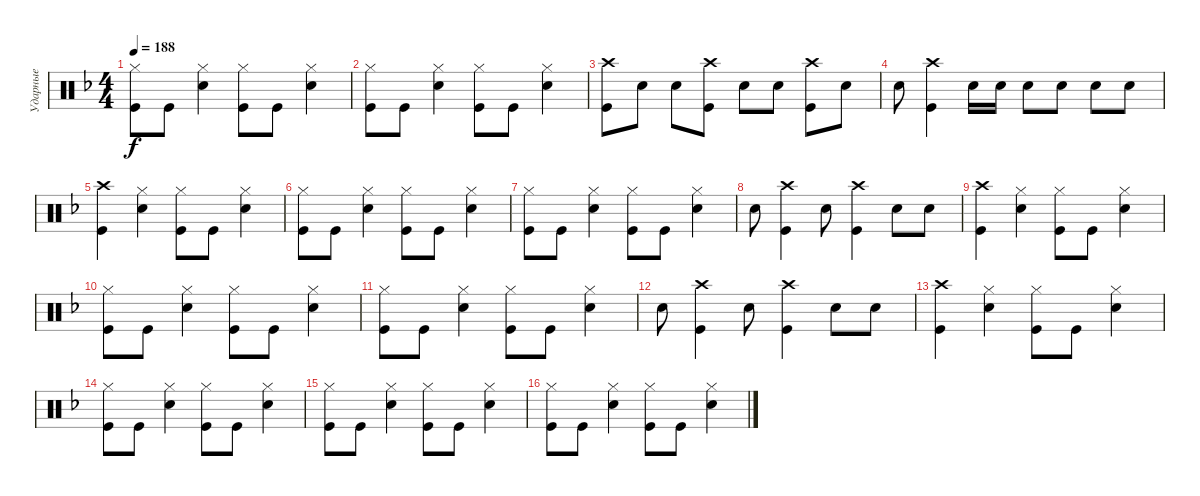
\track ("Ударные" "Ударные") {instrument percussion}
\staff {score}
\articulation defaults
\ts (4 4)
\tempo 188
\clef neutral
\ks dminor
("Kick (hit)" "Hi-Hat (closed)").8{dy f} "Kick (hit)".8 ("Snare (hit) 2" "Hi-Hat (closed)").4 ("Kick (hit)" "Hi-Hat (closed)").8 "Kick (hit)".8 ("Hi-Hat (closed)" "Snare (hit) 2").4 |
("Kick (hit)" "Hi-Hat (closed)").8 "Kick (hit)".8 ("Snare (hit) 2" "Hi-Hat (closed)").4 ("Kick (hit)" "Hi-Hat (closed)").8 "Kick (hit)".8 ("Hi-Hat (closed)" "Snare (hit) 2").4 |
("Kick (hit)" "Crash high (hit)").8 "Snare (hit) 2".8 "Snare (hit) 2".8 ("Kick (hit)" "Crash high (hit)").8 "Snare (hit) 2".8 "Snare (hit) 2".8 ("Kick (hit)" "Crash high (hit)").8 "Snare (hit) 2".8 |
"Snare (hit) 2".8 ("Kick (hit)" "Crash high (hit)").4 "Snare (hit) 2".16 "Snare (hit) 2".16 "Snare (hit) 2".8 "Snare (hit) 2".8 "Snare (hit) 2".8 "Snare (hit) 2".8 |
("Kick (hit)" "Crash high (hit)").4 ("Snare (hit) 2" "Hi-Hat (closed)").4 ("Kick (hit)" "Hi-Hat (closed)").8 "Kick (hit)".8 ("Hi-Hat (closed)" "Snare (hit) 2").4 |
("Kick (hit)" "Hi-Hat (closed)").8 "Kick (hit)".8 ("Snare (hit) 2" "Hi-Hat (closed)").4 ("Kick (hit)" "Hi-Hat (closed)").8 "Kick (hit)".8 ("Hi-Hat (closed)" "Snare (hit) 2").4 |
("Kick (hit)" "Hi-Hat (closed)").8 "Kick (hit)".8 ("Snare (hit) 2" "Hi-Hat (closed)").4 ("Kick (hit)" "Hi-Hat (closed)").8 "Kick (hit)".8 ("Hi-Hat (closed)" "Snare (hit) 2").4 |
"Snare (hit) 2".8 ("Kick (hit)" "Crash high (hit)").4 "Snare (hit) 2".8 ("Kick (hit)" "Crash high (hit)").4 "Snare (hit) 2".8 "Snare (hit) 2".8 |
("Kick (hit)" "Crash high (hit)").4 ("Snare (hit) 2" "Hi-Hat (closed)").4 ("Kick (hit)" "Hi-Hat (closed)").8 "Kick (hit)".8 ("Hi-Hat (closed)" "Snare (hit) 2").4 |
("Kick (hit)" "Hi-Hat (closed)").8 "Kick (hit)".8 ("Snare (hit) 2" "Hi-Hat (closed)").4 ("Kick (hit)" "Hi-Hat (closed)").8 "Kick (hit)".8 ("Hi-Hat (closed)" "Snare (hit) 2").4 |
("Kick (hit)" "Hi-Hat (closed)").8 "Kick (hit)".8 ("Snare (hit) 2" "Hi-Hat (closed)").4 ("Kick (hit)" "Hi-Hat (closed)").8 "Kick (hit)".8 ("Hi-Hat (closed)" "Snare (hit) 2").4 |
"Snare (hit) 2".8 ("Kick (hit)" "Crash high (hit)").4 "Snare (hit) 2".8 ("Kick (hit)" "Crash high (hit)").4 "Snare (hit) 2".8 "Snare (hit) 2".8 |
("Kick (hit)" "Crash high (hit)").4 ("Snare (hit) 2" "Hi-Hat (closed)").4 ("Kick (hit)" "Hi-Hat (closed)").8 "Kick (hit)".8 ("Hi-Hat (closed)" "Snare (hit) 2").4 |
("Kick (hit)" "Hi-Hat (closed)").8 "Kick (hit)".8 ("Snare (hit) 2" "Hi-Hat (closed)").4 ("Kick (hit)" "Hi-Hat (closed)").8 "Kick (hit)".8 ("Hi-Hat (closed)" "Snare (hit) 2").4 |
("Kick (hit)" "Hi-Hat (closed)").8 "Kick (hit)".8 ("Snare (hit) 2" "Hi-Hat (closed)").4 ("Kick (hit)" "Hi-Hat (closed)").8 "Kick (hit)".8 ("Hi-Hat (closed)" "Snare (hit) 2").4 |
("Kick (hit)" "Hi-Hat (closed)").8 "Kick (hit)".8 ("Snare (hit) 2" "Hi-Hat (closed)").4 ("Kick (hit)" "Hi-Hat (closed)").8 "Kick (hit)".8 ("Hi-Hat (closed)" "Snare (hit) 2").4
